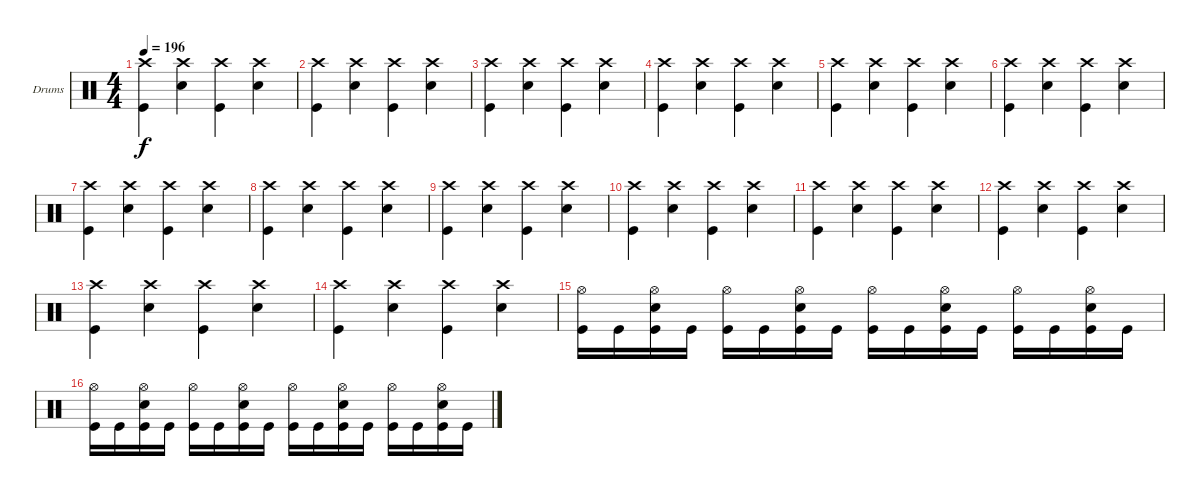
\defaultSystemsLayout 4
\bracketExtendMode groupsimilarinstruments
\firstSystemTrackNameOrientation horizontal
\otherSystemsTrackNameOrientation horizontal
\track ("Lars Ulrich (Drum)" "Drums") {instrument percussion}
\staff {score}
\articulation defaults
\ts (4 4)
\tempo 196
\clef neutral
\scale
0.333333
\ks c
("Crash high (hit)" "Kick (hit)").4{dy f} ("Crash high (hit)" "Snare (hit) 2").4 ("Crash high (hit)" "Kick (hit)").4 ("Crash high (hit)" "Snare (hit) 2").4 |
\scale
0.333333 ("Crash high (hit)" "Kick (hit)").4 ("Crash high (hit)" "Snare (hit) 2").4 ("Crash high (hit)" "Kick (hit)").4 ("Crash high (hit)" "Snare (hit) 2").4 |
\scale
0.333333 ("Crash high (hit)" "Kick (hit)").4 ("Crash high (hit)" "Snare (hit) 2").4 ("Crash high (hit)" "Kick (hit)").4 ("Crash high (hit)" "Snare (hit) 2").4 |
\scale
0.333333 ("Crash high (hit)" "Kick (hit)").4 ("Crash high (hit)" "Snare (hit) 2").4 ("Crash high (hit)" "Kick (hit)").4 ("Crash high (hit)" "Snare (hit) 2").4 |
\scale
0.333333 ("Crash high (hit)" "Kick (hit)").4 ("Crash high (hit)" "Snare (hit) 2").4 ("Crash high (hit)" "Kick (hit)").4 ("Crash high (hit)" "Snare (hit) 2").4 |
\scale
0.333333 ("Crash high (hit)" "Kick (hit)").4 ("Crash high (hit)" "Snare (hit) 2").4 ("Crash high (hit)" "Kick (hit)").4 ("Crash high (hit)" "Snare (hit) 2").4 |
\scale
0.333333 ("Crash high (hit)" "Kick (hit)").4 ("Crash high (hit)" "Snare (hit) 2").4 ("Crash high (hit)" "Kick (hit)").4 ("Crash high (hit)" "Snare (hit) 2").4 |
\scale
0.333333 ("Crash high (hit)" "Kick (hit)").4 ("Crash high (hit)" "Snare (hit) 2").4 ("Crash high (hit)" "Kick (hit)").4 ("Crash high (hit)" "Snare (hit) 2").4 |
\scale
0.333333 ("Crash high (hit)" "Kick (hit)").4 ("Crash high (hit)" "Snare (hit) 2").4 ("Crash high (hit)" "Kick (hit)").4 ("Crash high (hit)" "Snare (hit) 2").4 |
\scale
0.333333 ("Crash high (hit)" "Kick (hit)").4 ("Crash high (hit)" "Snare (hit) 2").4 ("Crash high (hit)" "Kick (hit)").4 ("Crash high (hit)" "Snare (hit) 2").4 |
\scale
0.333333 ("Crash high (hit)" "Kick (hit)").4 ("Crash high (hit)" "Snare (hit) 2").4 ("Crash high (hit)" "Kick (hit)").4 ("Crash high (hit)" "Snare (hit) 2").4 |
\scale
0.333333 ("Crash high (hit)" "Kick (hit)").4 ("Crash high (hit)" "Snare (hit) 2").4 ("Crash high (hit)" "Kick (hit)").4 ("Crash high (hit)" "Snare (hit) 2").4 |
\scale
0.333333 ("Crash high (hit)" "Kick (hit)").4 ("Crash high (hit)" "Snare (hit) 2").4 ("Crash high (hit)" "Kick (hit)").4 ("Crash high (hit)" "Snare (hit) 2").4 |
\scale
0.333333 ("Crash high (hit)" "Kick (hit)").4 ("Crash high (hit)" "Snare (hit) 2").4 ("Crash high (hit)" "Kick (hit)").4 ("Crash high (hit)" "Snare (hit) 2").4 |
\scale
0.333333 ("Hi-Hat (open)" "Kick (hit)").16 "Kick (hit)".16 ("Hi-Hat (open)" "Snare (hit) 2" "Kick (hit)").16 "Kick (hit)".16 ("Hi-Hat (open)" "Kick (hit)").16 "Kick (hit)".16 ("Hi-Hat (open)" "Snare (hit) 2" "Kick (hit)").16 "Kick (hit)".16 ("Hi-Hat (open)" "Kick (hit)").16 "Kick (hit)".16 ("Hi-Hat (open)" "Snare (hit) 2" "Kick (hit)").16 "Kick (hit)".16 ("Hi-Hat (open)" "Kick (hit)").16 "Kick (hit)".16 ("Hi-Hat (open)" "Snare (hit) 2" "Kick (hit)").16 "Kick (hit)".16 |
\scale
0.333333 ("Hi-Hat (open)" "Kick (hit)").16 "Kick (hit)".16 ("Hi-Hat (open)" "Snare (hit) 2" "Kick (hit)").16 "Kick (hit)".16 ("Hi-Hat (open)" "Kick (hit)").16 "Kick (hit)".16 ("Hi-Hat (open)" "Snare (hit) 2" "Kick (hit)").16 "Kick (hit)".16 ("Hi-Hat (open)" "Kick (hit)").16 "Kick (hit)".16 ("Hi-Hat (open)" "Snare (hit) 2" "Kick (hit)").16 "Kick (hit)".16 ("Hi-Hat (open)" "Kick (hit)").16 "Kick (hit)".16 ("Hi-Hat (open)" "Snare (hit) 2" "Kick (hit)").16 "Kick (hit)".16
